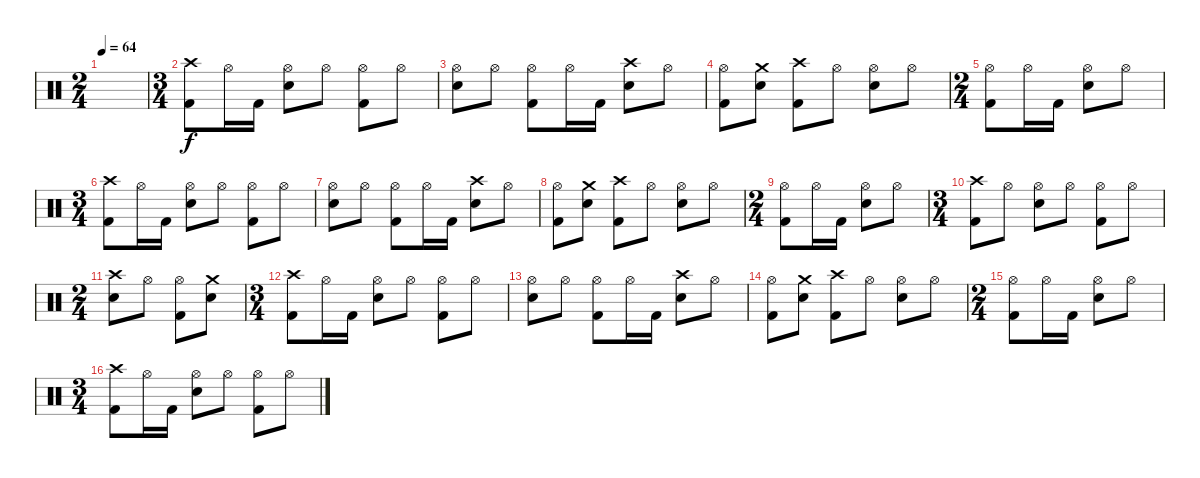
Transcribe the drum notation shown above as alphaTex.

\track "" {instrument percussion}
\staff {score}
\articulation defaults
\ts (2 4)
\tempo 64
\clef neutral
\ks c
|
\ts (3 4)
("Crash high (hit)" "Kick (hit) 2").8 "Hi-Hat (open)".16 "Kick (hit) 2".16 ("Hi-Hat (open)" "Snare (hit) 2").8 "Hi-Hat (open)".8 ("Hi-Hat (open)" "Kick (hit) 2").8 "Hi-Hat (open)".8 |
("Hi-Hat (open)" "Snare (hit) 2").8 "Hi-Hat (open)".8 ("Hi-Hat (open)" "Kick (hit) 2").8 "Hi-Hat (open)".16 "Kick (hit) 2".16 ("Crash high (hit)" "Snare (hit) 2").8 "Hi-Hat (open)".8 |
("Hi-Hat (open)" "Kick (hit) 2").8 ("Crash medium (hit)" "Snare (hit) 2").8 ("Crash high (hit)" "Kick (hit) 2").8 "Hi-Hat (open)".8 ("Hi-Hat (open)" "Snare (hit) 2").8 "Hi-Hat (open)".8 |
\ts (2 4)
("Hi-Hat (open)" "Kick (hit) 2").8 "Hi-Hat (open)".16 "Kick (hit) 2".16 ("Hi-Hat (open)" "Snare (hit) 2").8 "Hi-Hat (open)".8 |
\ts (3 4)
("Crash high (hit)" "Kick (hit) 2").8 "Hi-Hat (open)".16 "Kick (hit) 2".16 ("Hi-Hat (open)" "Snare (hit) 2").8 "Hi-Hat (open)".8 ("Hi-Hat (open)" "Kick (hit) 2").8 "Hi-Hat (open)".8 |
("Hi-Hat (open)" "Snare (hit) 2").8 "Hi-Hat (open)".8 ("Hi-Hat (open)" "Kick (hit) 2").8 "Hi-Hat (open)".16 "Kick (hit) 2".16 ("Crash high (hit)" "Snare (hit) 2").8 "Hi-Hat (open)".8 |
("Hi-Hat (open)" "Kick (hit) 2").8 ("Crash medium (hit)" "Snare (hit) 2").8 ("Crash high (hit)" "Kick (hit) 2").8 "Hi-Hat (open)".8 ("Hi-Hat (open)" "Snare (hit) 2").8 "Hi-Hat (open)".8 |
\ts (2 4)
("Hi-Hat (open)" "Kick (hit) 2").8 "Hi-Hat (open)".16 "Kick (hit) 2".16 ("Hi-Hat (open)" "Snare (hit) 2").8 "Hi-Hat (open)".8 |
\ts (3 4)
("Crash high (hit)" "Kick (hit) 2").8 "Hi-Hat (open)".8 ("Hi-Hat (open)" "Snare (hit) 2").8 "Hi-Hat (open)".8 ("Hi-Hat (open)" "Kick (hit) 2").8 "Hi-Hat (open)".8 |
\ts (2 4)
("Crash high (hit)" "Snare (hit) 2").8 "Hi-Hat (open)".8 ("Hi-Hat (open)" "Kick (hit) 2").8 ("Crash medium (hit)" "Snare (hit) 2").8 |
\ts (3 4)
("Crash high (hit)" "Kick (hit) 2").8 "Hi-Hat (open)".16 "Kick (hit) 2".16 ("Hi-Hat (open)" "Snare (hit) 2").8 "Hi-Hat (open)".8 ("Hi-Hat (open)" "Kick (hit) 2").8 "Hi-Hat (open)".8 |
("Hi-Hat (open)" "Snare (hit) 2").8 "Hi-Hat (open)".8 ("Hi-Hat (open)" "Kick (hit) 2").8 "Hi-Hat (open)".16 "Kick (hit) 2".16 ("Crash high (hit)" "Snare (hit) 2").8 "Hi-Hat (open)".8 |
("Hi-Hat (open)" "Kick (hit) 2").8 ("Crash medium (hit)" "Snare (hit) 2").8 ("Crash high (hit)" "Kick (hit) 2").8 "Hi-Hat (open)".8 ("Hi-Hat (open)" "Snare (hit) 2").8 "Hi-Hat (open)".8 |
\ts (2 4)
("Hi-Hat (open)" "Kick (hit) 2").8 "Hi-Hat (open)".16 "Kick (hit) 2".16 ("Hi-Hat (open)" "Snare (hit) 2").8 "Hi-Hat (open)".8 |
\ts (3 4)
("Crash high (hit)" "Kick (hit) 2").8 "Hi-Hat (open)".16 "Kick (hit) 2".16 ("Hi-Hat (open)" "Snare (hit) 2").8 "Hi-Hat (open)".8 ("Hi-Hat (open)" "Kick (hit) 2").8 "Hi-Hat (open)".8
